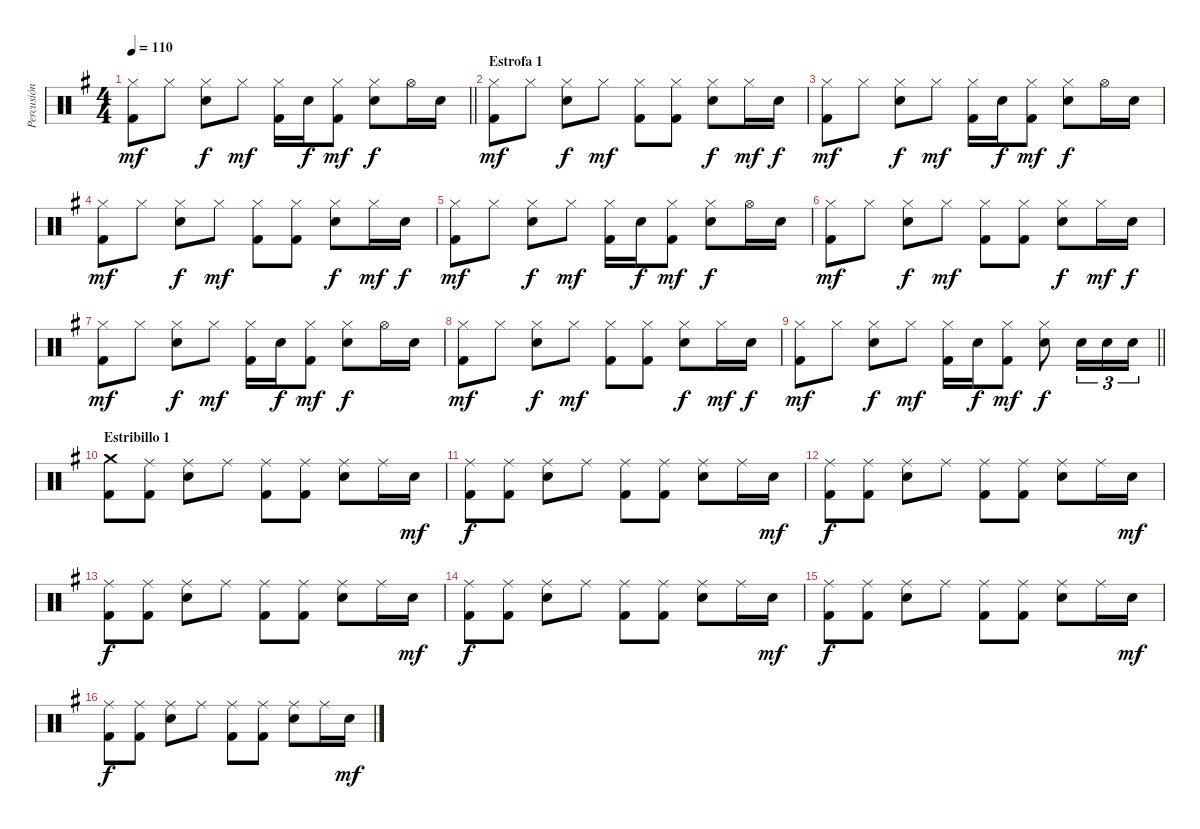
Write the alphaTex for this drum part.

\track ("Percusión" "Percusión") {instrument percussion}
\staff {score}
\articulation defaults
\ts (4 4)
\tempo 110
\clef neutral
\barLineRight lightlight
\ks g
("Hi-Hat (closed)" "Kick (hit) 2").8{dy mf} "Hi-Hat (closed)".8 ("Hi-Hat (closed)" "Electric Snare (hit)").8{dy f} "Hi-Hat (closed)".8{dy mf} ("Hi-Hat (closed)" "Kick (hit) 2").16 "Electric Snare (hit)".16{dy f} ("Hi-Hat (closed)" "Kick (hit) 2").8{dy mf} ("Hi-Hat (closed)" "Electric Snare (hit)").8{dy f} "Hi-Hat (open)".16 "Electric Snare (hit)".16 |
\section ("" "Estrofa 1")
("Hi-Hat (closed)" "Kick (hit) 2").8{dy mf} "Hi-Hat (closed)".8 ("Hi-Hat (closed)" "Electric Snare (hit)").8{dy f} "Hi-Hat (closed)".8{dy mf} ("Hi-Hat (closed)" "Kick (hit) 2").8 ("Hi-Hat (closed)" "Kick (hit) 2").8 ("Hi-Hat (closed)" "Electric Snare (hit)").8{dy f} "Hi-Hat (closed)".16{dy mf} "Electric Snare (hit)".16{dy f} |
("Hi-Hat (closed)" "Kick (hit) 2").8{dy mf} "Hi-Hat (closed)".8 ("Hi-Hat (closed)" "Electric Snare (hit)").8{dy f} "Hi-Hat (closed)".8{dy mf} ("Hi-Hat (closed)" "Kick (hit) 2").16 "Electric Snare (hit)".16{dy f} ("Hi-Hat (closed)" "Kick (hit) 2").8{dy mf} ("Hi-Hat (closed)" "Electric Snare (hit)").8{dy f} "Hi-Hat (open)".16 "Electric Snare (hit)".16 |
("Hi-Hat (closed)" "Kick (hit) 2").8{dy mf} "Hi-Hat (closed)".8 ("Hi-Hat (closed)" "Electric Snare (hit)").8{dy f} "Hi-Hat (closed)".8{dy mf} ("Hi-Hat (closed)" "Kick (hit) 2").8 ("Hi-Hat (closed)" "Kick (hit) 2").8 ("Hi-Hat (closed)" "Electric Snare (hit)").8{dy f} "Hi-Hat (closed)".16{dy mf} "Electric Snare (hit)".16{dy f} |
("Hi-Hat (closed)" "Kick (hit) 2").8{dy mf} "Hi-Hat (closed)".8 ("Hi-Hat (closed)" "Electric Snare (hit)").8{dy f} "Hi-Hat (closed)".8{dy mf} ("Hi-Hat (closed)" "Kick (hit) 2").16 "Electric Snare (hit)".16{dy f} ("Hi-Hat (closed)" "Kick (hit) 2").8{dy mf} ("Hi-Hat (closed)" "Electric Snare (hit)").8{dy f} "Hi-Hat (open)".16 "Electric Snare (hit)".16 |
("Hi-Hat (closed)" "Kick (hit) 2").8{dy mf} "Hi-Hat (closed)".8 ("Hi-Hat (closed)" "Electric Snare (hit)").8{dy f} "Hi-Hat (closed)".8{dy mf} ("Hi-Hat (closed)" "Kick (hit) 2").8 ("Hi-Hat (closed)" "Kick (hit) 2").8 ("Hi-Hat (closed)" "Electric Snare (hit)").8{dy f} "Hi-Hat (closed)".16{dy mf} "Electric Snare (hit)".16{dy f} |
("Hi-Hat (closed)" "Kick (hit) 2").8{dy mf} "Hi-Hat (closed)".8 ("Hi-Hat (closed)" "Electric Snare (hit)").8{dy f} "Hi-Hat (closed)".8{dy mf} ("Hi-Hat (closed)" "Kick (hit) 2").16 "Electric Snare (hit)".16{dy f} ("Hi-Hat (closed)" "Kick (hit) 2").8{dy mf} ("Hi-Hat (closed)" "Electric Snare (hit)").8{dy f} "Hi-Hat (open)".16 "Electric Snare (hit)".16 |
("Hi-Hat (closed)" "Kick (hit) 2").8{dy mf} "Hi-Hat (closed)".8 ("Hi-Hat (closed)" "Electric Snare (hit)").8{dy f} "Hi-Hat (closed)".8{dy mf} ("Hi-Hat (closed)" "Kick (hit) 2").8 ("Hi-Hat (closed)" "Kick (hit) 2").8 ("Hi-Hat (closed)" "Electric Snare (hit)").8{dy f} "Hi-Hat (closed)".16{dy mf} "Electric Snare (hit)".16{dy f} |
\barLineRight lightlight
("Hi-Hat (closed)" "Kick (hit) 2").8{dy mf} "Hi-Hat (closed)".8 ("Hi-Hat (closed)" "Electric Snare (hit)").8{dy f} "Hi-Hat (closed)".8{dy mf} ("Hi-Hat (closed)" "Kick (hit) 2").16 "Electric Snare (hit)".16{dy f} ("Hi-Hat (closed)" "Kick (hit) 2").8{dy mf} ("Hi-Hat (closed)" "Electric Snare (hit)").8{dy f} "Electric Snare (hit)".16{tu (3 2)} "Electric Snare (hit)".16{tu (3 2)} "Electric Snare (hit)".16{tu (3 2)} |
\section ("" "Estribillo 1")
("Crash medium (hit)" "Kick (hit) 2").8 ("Ride (middle)" "Kick (hit) 2").8 ("Ride (middle)" "Snare (hit) 2").8 "Ride (middle)".8 ("Ride (middle)" "Kick (hit) 2").8 ("Ride (middle)" "Kick (hit) 2").8 ("Ride (middle)" "Snare (hit) 2").8 "Ride (middle)".16 "Snare (hit) 2".16{dy mf} |
("Ride (middle)" "Kick (hit) 2").8{dy f} ("Ride (middle)" "Kick (hit) 2").8 ("Ride (middle)" "Snare (hit) 2").8 "Ride (middle)".8 ("Ride (middle)" "Kick (hit) 2").8 ("Ride (middle)" "Kick (hit) 2").8 ("Ride (middle)" "Snare (hit) 2").8 "Ride (middle)".16 "Snare (hit) 2".16{dy mf} |
("Ride (middle)" "Kick (hit) 2").8{dy f} ("Ride (middle)" "Kick (hit) 2").8 ("Ride (middle)" "Snare (hit) 2").8 "Ride (middle)".8 ("Ride (middle)" "Kick (hit) 2").8 ("Ride (middle)" "Kick (hit) 2").8 ("Ride (middle)" "Snare (hit) 2").8 "Ride (middle)".16 "Snare (hit) 2".16{dy mf} |
("Ride (middle)" "Kick (hit) 2").8{dy f} ("Ride (middle)" "Kick (hit) 2").8 ("Ride (middle)" "Snare (hit) 2").8 "Ride (middle)".8 ("Ride (middle)" "Kick (hit) 2").8 ("Ride (middle)" "Kick (hit) 2").8 ("Ride (middle)" "Snare (hit) 2").8 "Ride (middle)".16 "Snare (hit) 2".16{dy mf} |
("Ride (middle)" "Kick (hit) 2").8{dy f} ("Ride (middle)" "Kick (hit) 2").8 ("Ride (middle)" "Snare (hit) 2").8 "Ride (middle)".8 ("Ride (middle)" "Kick (hit) 2").8 ("Ride (middle)" "Kick (hit) 2").8 ("Ride (middle)" "Snare (hit) 2").8 "Ride (middle)".16 "Snare (hit) 2".16{dy mf} |
("Ride (middle)" "Kick (hit) 2").8{dy f} ("Ride (middle)" "Kick (hit) 2").8 ("Ride (middle)" "Snare (hit) 2").8 "Ride (middle)".8 ("Ride (middle)" "Kick (hit) 2").8 ("Ride (middle)" "Kick (hit) 2").8 ("Ride (middle)" "Snare (hit) 2").8 "Ride (middle)".16 "Snare (hit) 2".16{dy mf} |
("Ride (middle)" "Kick (hit) 2").8{dy f} ("Ride (middle)" "Kick (hit) 2").8 ("Ride (middle)" "Snare (hit) 2").8 "Ride (middle)".8 ("Ride (middle)" "Kick (hit) 2").8 ("Ride (middle)" "Kick (hit) 2").8 ("Ride (middle)" "Snare (hit) 2").8 "Ride (middle)".16 "Snare (hit) 2".16{dy mf}
